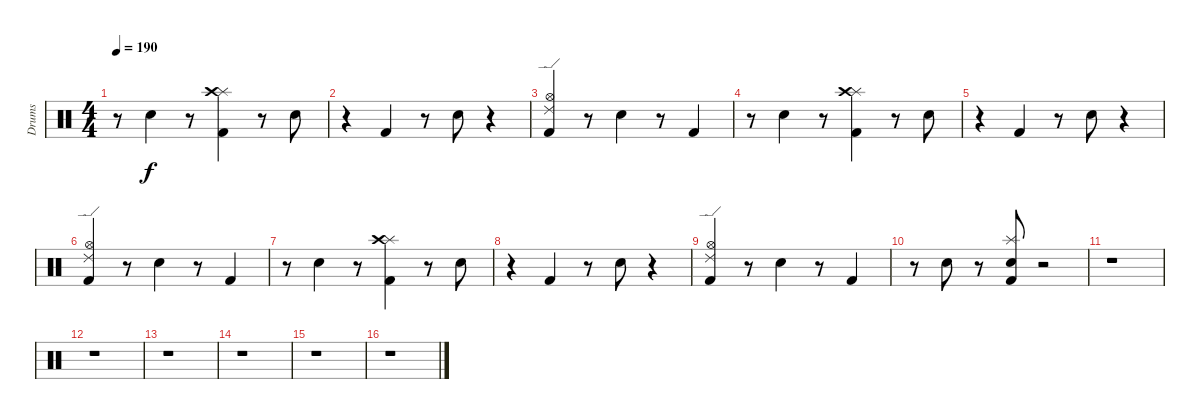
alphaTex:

\track ("Drums" "Drums") {instrument percussion}
\staff {score}
\articulation defaults
\ts (4 4)
\tempo 190
\clef neutral
\ks c
r.8{dy f} "Electric Snare (hit)".4 r.8 ("Splash (hit)" "Crash high (hit)" "Kick (hit) 2").4 r.8 "Electric Snare (hit)".8 |
r.4 "Kick (hit) 2".4 r.8 "Electric Snare (hit)".8 r.4 |
("Hi-Hat (open)" "Ride (edge) 2" "Kick (hit) 2").4 r.8 "Electric Snare (hit)".4 r.8 "Kick (hit) 2".4 |
r.8 "Electric Snare (hit)".4 r.8 ("Splash (hit)" "Crash high (hit)" "Kick (hit) 2").4 r.8 "Electric Snare (hit)".8 |
r.4 "Kick (hit) 2".4 r.8 "Electric Snare (hit)".8 r.4 |
("Hi-Hat (open)" "Ride (edge) 2" "Kick (hit) 2").4 r.8 "Electric Snare (hit)".4 r.8 "Kick (hit) 2".4 |
r.8 "Electric Snare (hit)".4 r.8 ("Splash (hit)" "Crash high (hit)" "Kick (hit) 2").4 r.8 "Electric Snare (hit)".8 |
r.4 "Kick (hit) 2".4 r.8 "Electric Snare (hit)".8 r.4 |
("Hi-Hat (open)" "Ride (edge) 2" "Kick (hit) 2").4 r.8 "Electric Snare (hit)".4 r.8 "Kick (hit) 2".4 |
r.8 "Electric Snare (hit)".8 r.8 ("Splash (hit)" "Electric Snare (hit)" "Kick (hit) 2").8 r.2 |
r.1 |
r.1 |
r.1 |
r.1 |
r.1 |
r.1
